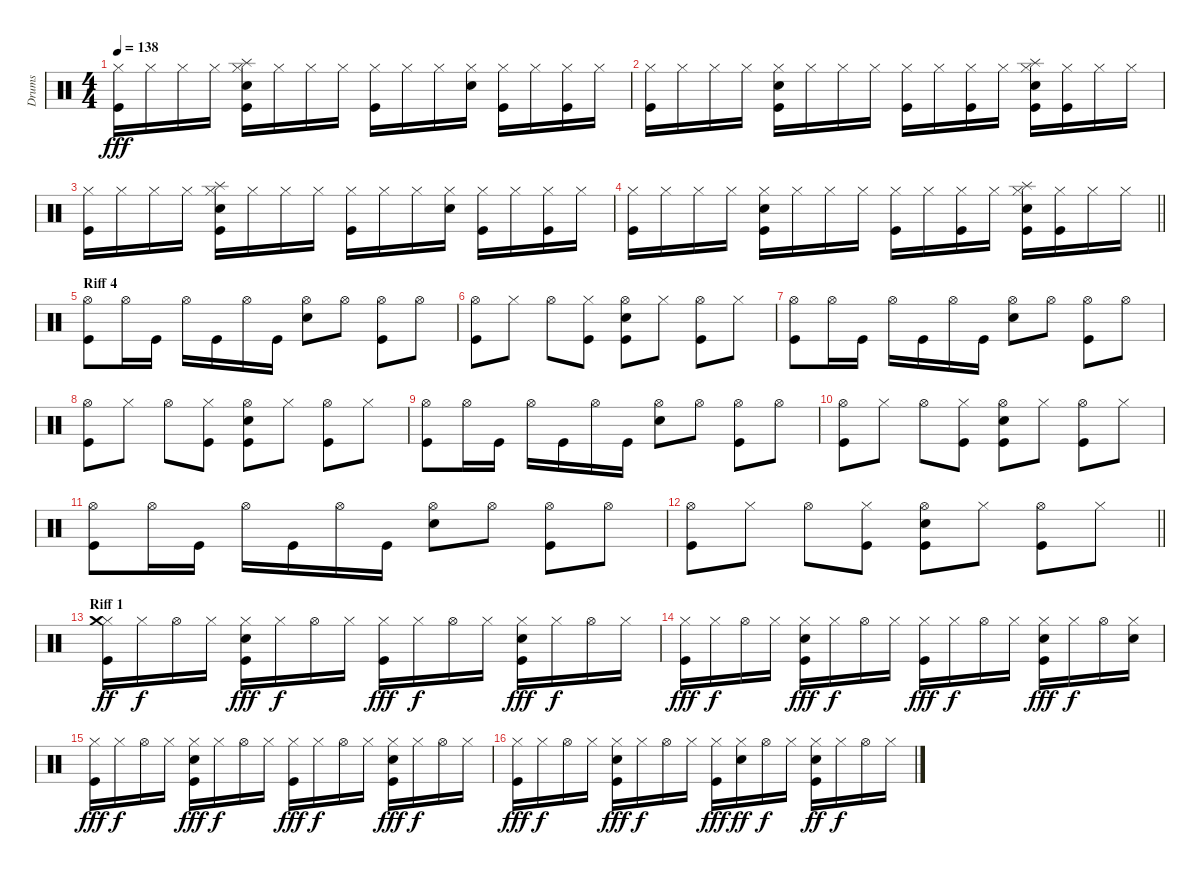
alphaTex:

\track ("Drums" "Drums") {instrument percussion}
\staff {score}
\articulation defaults
\ts (4 4)
\tempo 138
\clef neutral
\ks c
("Kick (hit)" "Hi-Hat (closed)").16{dy fff} "Hi-Hat (closed)".16 "Hi-Hat (closed)".16 "Hi-Hat (closed)".16 ("Kick (hit)" "Electric Snare (hit)" "Hi-Hat (closed)" "Splash (hit)").16 "Hi-Hat (closed)".16 "Hi-Hat (closed)".16 "Hi-Hat (closed)".16 ("Kick (hit)" "Hi-Hat (closed)").16 "Hi-Hat (closed)".16 "Hi-Hat (closed)".16 ("Electric Snare (hit)" "Hi-Hat (closed)").16 ("Kick (hit)" "Hi-Hat (closed)").16 "Hi-Hat (closed)".16 ("Kick (hit)" "Hi-Hat (closed)").16 "Hi-Hat (closed)".16 |
("Kick (hit)" "Hi-Hat (closed)").16 "Hi-Hat (closed)".16 "Hi-Hat (closed)".16 "Hi-Hat (closed)".16 ("Kick (hit)" "Electric Snare (hit)" "Hi-Hat (closed)").16 "Hi-Hat (closed)".16 "Hi-Hat (closed)".16 "Hi-Hat (closed)".16 ("Kick (hit)" "Hi-Hat (closed)").16 "Hi-Hat (closed)".16 ("Kick (hit)" "Hi-Hat (closed)").16 "Hi-Hat (closed)".16 ("Kick (hit)" "Electric Snare (hit)" "Hi-Hat (closed)" "Splash (hit)").16 ("Kick (hit)" "Hi-Hat (closed)").16 "Hi-Hat (closed)".16 "Hi-Hat (closed)".16 |
("Kick (hit)" "Hi-Hat (closed)").16 "Hi-Hat (closed)".16 "Hi-Hat (closed)".16 "Hi-Hat (closed)".16 ("Kick (hit)" "Electric Snare (hit)" "Hi-Hat (closed)" "Splash (hit)").16 "Hi-Hat (closed)".16 "Hi-Hat (closed)".16 "Hi-Hat (closed)".16 ("Kick (hit)" "Hi-Hat (closed)").16 "Hi-Hat (closed)".16 "Hi-Hat (closed)".16 ("Electric Snare (hit)" "Hi-Hat (closed)").16 ("Kick (hit)" "Hi-Hat (closed)").16 "Hi-Hat (closed)".16 ("Kick (hit)" "Hi-Hat (closed)").16 "Hi-Hat (closed)".16 |
\barLineRight lightlight
("Kick (hit)" "Hi-Hat (closed)").16 "Hi-Hat (closed)".16 "Hi-Hat (closed)".16 "Hi-Hat (closed)".16 ("Kick (hit)" "Electric Snare (hit)" "Hi-Hat (closed)").16 "Hi-Hat (closed)".16 "Hi-Hat (closed)".16 "Hi-Hat (closed)".16 ("Kick (hit)" "Hi-Hat (closed)").16 "Hi-Hat (closed)".16 ("Kick (hit)" "Hi-Hat (closed)").16 "Hi-Hat (closed)".16 ("Kick (hit)" "Electric Snare (hit)" "Hi-Hat (closed)" "Splash (hit)").16 ("Kick (hit)" "Hi-Hat (closed)").16 "Hi-Hat (closed)".16 "Hi-Hat (closed)".16 |
\section ("" "Riff 4")
("Kick (hit)" "Hi-Hat (open)").8 "Hi-Hat (open)".16 "Kick (hit)".16 "Hi-Hat (open)".16 "Kick (hit)".16 "Hi-Hat (open)".16 "Kick (hit)".16 ("Electric Snare (hit)" "Hi-Hat (open)").8 "Hi-Hat (open)".8 ("Kick (hit)" "Hi-Hat (open)").8 "Hi-Hat (open)".8 |
("Kick (hit)" "Hi-Hat (open)").8 "Hi-Hat (closed)".8 "Hi-Hat (open)".8 ("Kick (hit)" "Hi-Hat (closed)").8 ("Kick (hit)" "Electric Snare (hit)" "Hi-Hat (open)").8 "Hi-Hat (closed)".8 ("Kick (hit)" "Hi-Hat (open)").8 "Hi-Hat (closed)".8 |
("Kick (hit)" "Hi-Hat (open)").8 "Hi-Hat (open)".16 "Kick (hit)".16 "Hi-Hat (open)".16 "Kick (hit)".16 "Hi-Hat (open)".16 "Kick (hit)".16 ("Electric Snare (hit)" "Hi-Hat (open)").8 "Hi-Hat (open)".8 ("Kick (hit)" "Hi-Hat (open)").8 "Hi-Hat (open)".8 |
("Kick (hit)" "Hi-Hat (open)").8 "Hi-Hat (closed)".8 "Hi-Hat (open)".8 ("Kick (hit)" "Hi-Hat (closed)").8 ("Kick (hit)" "Electric Snare (hit)" "Hi-Hat (open)").8 "Hi-Hat (closed)".8 ("Kick (hit)" "Hi-Hat (open)").8 "Hi-Hat (closed)".8 |
("Kick (hit)" "Hi-Hat (open)").8 "Hi-Hat (open)".16 "Kick (hit)".16 "Hi-Hat (open)".16 "Kick (hit)".16 "Hi-Hat (open)".16 "Kick (hit)".16 ("Electric Snare (hit)" "Hi-Hat (open)").8 "Hi-Hat (open)".8 ("Kick (hit)" "Hi-Hat (open)").8 "Hi-Hat (open)".8 |
("Kick (hit)" "Hi-Hat (open)").8 "Hi-Hat (closed)".8 "Hi-Hat (open)".8 ("Kick (hit)" "Hi-Hat (closed)").8 ("Kick (hit)" "Electric Snare (hit)" "Hi-Hat (open)").8 "Hi-Hat (closed)".8 ("Kick (hit)" "Hi-Hat (open)").8 "Hi-Hat (closed)".8 |
("Kick (hit)" "Hi-Hat (open)").8 "Hi-Hat (open)".16 "Kick (hit)".16 "Hi-Hat (open)".16 "Kick (hit)".16 "Hi-Hat (open)".16 "Kick (hit)".16 ("Electric Snare (hit)" "Hi-Hat (open)").8 "Hi-Hat (open)".8 ("Kick (hit)" "Hi-Hat (open)").8 "Hi-Hat (open)".8 |
\barLineRight lightlight
("Kick (hit)" "Hi-Hat (open)").8 "Hi-Hat (closed)".8 "Hi-Hat (open)".8 ("Kick (hit)" "Hi-Hat (closed)").8 ("Kick (hit)" "Electric Snare (hit)" "Hi-Hat (open)").8 "Hi-Hat (closed)".8 ("Kick (hit)" "Hi-Hat (open)").8 "Hi-Hat (closed)".8 |
\section ("" "Riff 1")
("Kick (hit)" "Hi-Hat (closed)" "Crash medium (hit)").16{dy ff} "Hi-Hat (closed)".16{dy f} "Hi-Hat (open)".16 "Hi-Hat (closed)".16 ("Kick (hit)" "Electric Snare (hit)" "Hi-Hat (closed)").16{dy fff} "Hi-Hat (closed)".16{dy f} "Hi-Hat (open)".16 "Hi-Hat (closed)".16 ("Kick (hit)" "Hi-Hat (closed)").16{dy fff} "Hi-Hat (closed)".16{dy f} "Hi-Hat (open)".16 "Hi-Hat (closed)".16 ("Kick (hit)" "Electric Snare (hit)" "Hi-Hat (closed)").16{dy fff} "Hi-Hat (closed)".16{dy f} "Hi-Hat (open)".16 "Hi-Hat (closed)".16 |
("Kick (hit)" "Hi-Hat (closed)").16{dy fff} "Hi-Hat (closed)".16{dy f} "Hi-Hat (open)".16 "Hi-Hat (closed)".16 ("Kick (hit)" "Electric Snare (hit)" "Hi-Hat (closed)").16{dy fff} "Hi-Hat (closed)".16{dy f} "Hi-Hat (open)".16 "Hi-Hat (closed)".16 ("Kick (hit)" "Hi-Hat (closed)").16{dy fff} "Hi-Hat (closed)".16{dy f} "Hi-Hat (open)".16 "Hi-Hat (closed)".16 ("Kick (hit)" "Electric Snare (hit)" "Hi-Hat (closed)").16{dy fff} "Hi-Hat (closed)".16{dy f} "Hi-Hat (open)".16 ("Electric Snare (hit)" "Hi-Hat (closed)").16 |
("Kick (hit)" "Hi-Hat (closed)").16{dy fff} "Hi-Hat (closed)".16{dy f} "Hi-Hat (open)".16 "Hi-Hat (closed)".16 ("Kick (hit)" "Electric Snare (hit)" "Hi-Hat (closed)").16{dy fff} "Hi-Hat (closed)".16{dy f} "Hi-Hat (open)".16 "Hi-Hat (closed)".16 ("Kick (hit)" "Hi-Hat (closed)").16{dy fff} "Hi-Hat (closed)".16{dy f} "Hi-Hat (open)".16 "Hi-Hat (closed)".16 ("Kick (hit)" "Electric Snare (hit)" "Hi-Hat (closed)").16{dy fff} "Hi-Hat (closed)".16{dy f} "Hi-Hat (open)".16 "Hi-Hat (closed)".16 |
("Kick (hit)" "Hi-Hat (closed)").16{dy fff} "Hi-Hat (closed)".16{dy f} "Hi-Hat (open)".16 "Hi-Hat (closed)".16 ("Kick (hit)" "Electric Snare (hit)" "Hi-Hat (closed)").16{dy fff} "Hi-Hat (closed)".16{dy f} "Hi-Hat (open)".16 "Hi-Hat (closed)".16 ("Kick (hit)" "Hi-Hat (closed)").16{dy fff} ("Electric Snare (hit)" "Hi-Hat (closed)").16{dy ff} "Hi-Hat (open)".16{dy f} "Hi-Hat (closed)".16 ("Kick (hit)" "Electric Snare (hit)" "Hi-Hat (closed)").16{dy ff} "Hi-Hat (closed)".16{dy f} "Hi-Hat (open)".16 "Hi-Hat (closed)".16
